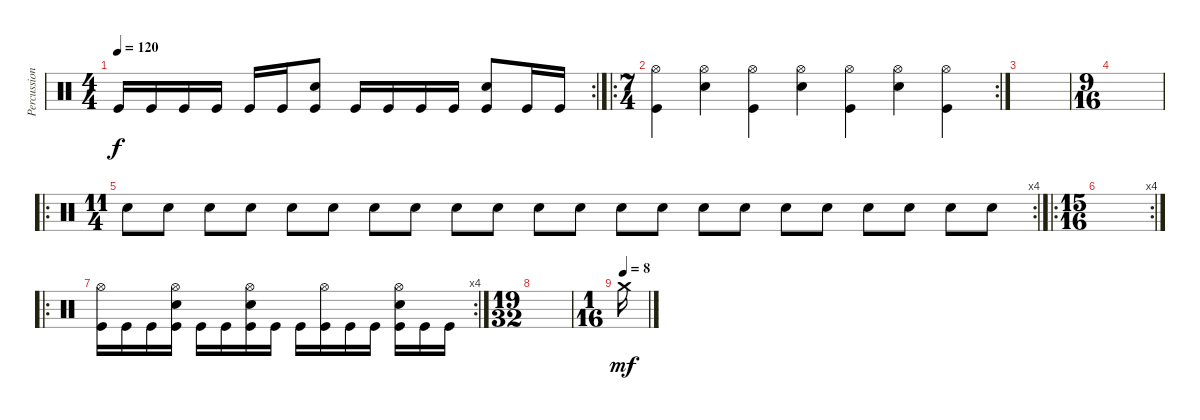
\track ("Percussion" "Percussion") {instrument percussion}
\staff {score}
\articulation defaults
\rc 2
\ts (4 4)
\tempo 120
\clef neutral
\ks c "Kick (hit)".16{dy f} "Kick (hit)".16 "Kick (hit)".16 "Kick (hit)".16 "Kick (hit)".16 "Kick (hit)".16
("Snare (hit) 2" "Kick (hit)").8 "Kick (hit)".16 "Kick (hit)".16 "Kick (hit)".16 "Kick (hit)".16 ("Snare (hit) 2" "Kick (hit)").8 "Kick (hit)".16 "Kick (hit)".16 |
\ro
\rc 2
\ts (7 4)
("Hi-Hat (open)" "Kick (hit)").4 ("Hi-Hat (open)" "Snare (hit) 2").4 ("Hi-Hat (open)" "Kick (hit)").4 ("Hi-Hat (open)" "Snare (hit) 2").4 ("Hi-Hat (open)" "Kick (hit)").4 ("Hi-Hat (open)" "Snare (hit) 2").4 ("Hi-Hat (open)" "Kick (hit)").4 |
|
\ts (9 16)
|
\ro
\rc 4
\ts (11 4)
"Snare (hit) 2".8 "Snare (hit) 2".8 "Snare (hit) 2".8 "Snare (hit) 2".8 "Snare (hit) 2".8 "Snare (hit) 2".8 "Snare (hit) 2".8 "Snare (hit) 2".8 "Snare (hit) 2".8 "Snare (hit) 2".8 "Snare (hit) 2".8 "Snare (hit) 2".8 "Snare (hit) 2".8 "Snare (hit) 2".8 "Snare (hit) 2".8 "Snare (hit) 2".8 "Snare (hit) 2".8 "Snare (hit) 2".8 "Snare (hit) 2".8 "Snare (hit) 2".8 "Snare (hit) 2".8 "Snare (hit) 2".8 |
\ro
\rc 4
\ts (15 16)
|
\ro
\rc 4
("Hi-Hat (open)" "Kick (hit)").16 "Kick (hit)".16 "Kick (hit)".16 ("Hi-Hat (open)" "Snare (hit) 2" "Kick (hit)").16 "Kick (hit)".16 "Kick (hit)".16 ("Hi-Hat (open)" "Snare (hit) 2" "Kick (hit)").16 "Kick (hit)".16 "Kick (hit)".16 ("Hi-Hat (open)" "Kick (hit)").16 "Kick (hit)".16 "Kick (hit)".16 ("Hi-Hat (open)" "Snare (hit) 2" "Kick (hit)").16 "Kick (hit)".16 "Kick (hit)".16 |
\ts (19 32)
|
\ts (1 16)
\tempo (8)
"Crash medium (hit)".16{dy mf}
